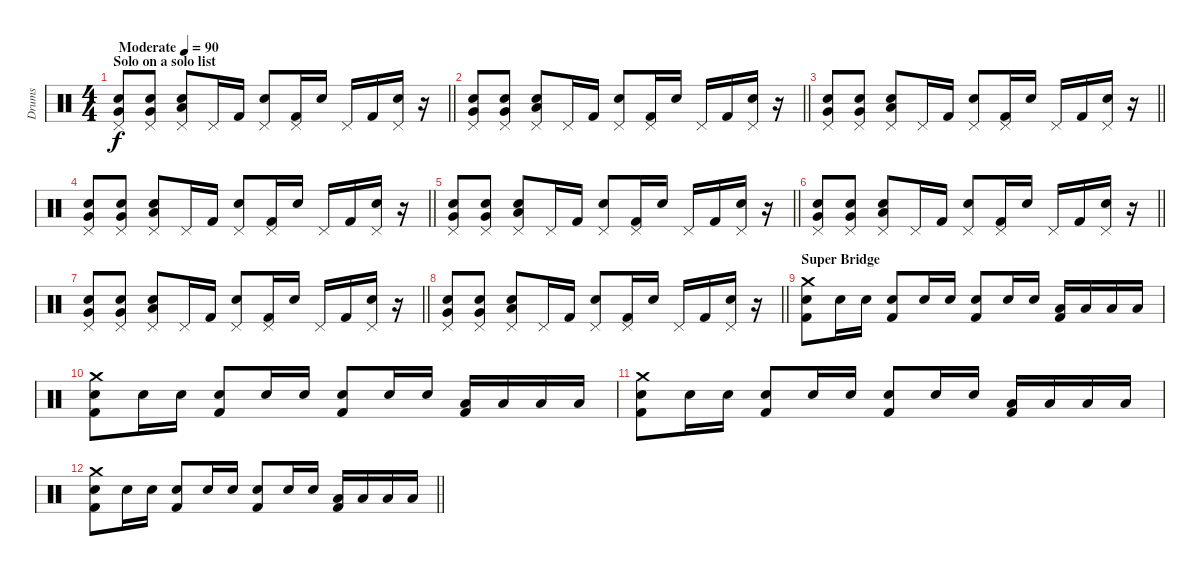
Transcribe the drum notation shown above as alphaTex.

\track ("Drums" "Drums") {instrument percussion}
\staff {score}
\articulation defaults
\ts (4 4)
\section ("" "Solo on a solo list")
\tempo (90 "Moderate")
\clef neutral
\barLineRight lightlight
\ks c
("Very Low Tom (hit)" "Snare (hit) 2" "Pedal Hi-Hat (hit)").8{dy f} ("Very Low Tom (hit)" "Snare (hit) 2" "Pedal Hi-Hat (hit)").8 ("Low Floor Tom (hit)" "Snare (hit) 2" "Pedal Hi-Hat (hit)").8 "Pedal Hi-Hat (hit)".16 "Kick (hit) 2".16 ("Snare (hit) 2" "Pedal Hi-Hat (hit)").8 ("Kick (hit) 2" "Pedal Hi-Hat (hit)").16 "Snare (hit) 2".16 "Pedal Hi-Hat (hit)".16 "Kick (hit) 2".16 ("Snare (hit) 2" "Pedal Hi-Hat (hit)").16 r.16 |
\barLineRight lightlight
("Very Low Tom (hit)" "Snare (hit) 2" "Pedal Hi-Hat (hit)").8 ("Very Low Tom (hit)" "Snare (hit) 2" "Pedal Hi-Hat (hit)").8 ("Low Floor Tom (hit)" "Snare (hit) 2" "Pedal Hi-Hat (hit)").8 "Pedal Hi-Hat (hit)".16 "Kick (hit) 2".16 ("Snare (hit) 2" "Pedal Hi-Hat (hit)").8 ("Kick (hit) 2" "Pedal Hi-Hat (hit)").16 "Snare (hit) 2".16 "Pedal Hi-Hat (hit)".16 "Kick (hit) 2".16 ("Snare (hit) 2" "Pedal Hi-Hat (hit)").16 r.16 |
\barLineRight lightlight
("Very Low Tom (hit)" "Snare (hit) 2" "Pedal Hi-Hat (hit)").8 ("Very Low Tom (hit)" "Snare (hit) 2" "Pedal Hi-Hat (hit)").8 ("Low Floor Tom (hit)" "Snare (hit) 2" "Pedal Hi-Hat (hit)").8 "Pedal Hi-Hat (hit)".16 "Kick (hit) 2".16 ("Snare (hit) 2" "Pedal Hi-Hat (hit)").8 ("Kick (hit) 2" "Pedal Hi-Hat (hit)").16 "Snare (hit) 2".16 "Pedal Hi-Hat (hit)".16 "Kick (hit) 2".16 ("Snare (hit) 2" "Pedal Hi-Hat (hit)").16 r.16 |
\barLineRight lightlight
("Very Low Tom (hit)" "Snare (hit) 2" "Pedal Hi-Hat (hit)").8 ("Very Low Tom (hit)" "Snare (hit) 2" "Pedal Hi-Hat (hit)").8 ("Low Floor Tom (hit)" "Snare (hit) 2" "Pedal Hi-Hat (hit)").8 "Pedal Hi-Hat (hit)".16 "Kick (hit) 2".16 ("Snare (hit) 2" "Pedal Hi-Hat (hit)").8 ("Kick (hit) 2" "Pedal Hi-Hat (hit)").16 "Snare (hit) 2".16 "Pedal Hi-Hat (hit)".16 "Kick (hit) 2".16 ("Snare (hit) 2" "Pedal Hi-Hat (hit)").16 r.16 |
\barLineRight lightlight
("Very Low Tom (hit)" "Snare (hit) 2" "Pedal Hi-Hat (hit)").8 ("Very Low Tom (hit)" "Snare (hit) 2" "Pedal Hi-Hat (hit)").8 ("Low Floor Tom (hit)" "Snare (hit) 2" "Pedal Hi-Hat (hit)").8 "Pedal Hi-Hat (hit)".16 "Kick (hit) 2".16 ("Snare (hit) 2" "Pedal Hi-Hat (hit)").8 ("Kick (hit) 2" "Pedal Hi-Hat (hit)").16 "Snare (hit) 2".16 "Pedal Hi-Hat (hit)".16 "Kick (hit) 2".16 ("Snare (hit) 2" "Pedal Hi-Hat (hit)").16 r.16 |
\barLineRight lightlight
("Very Low Tom (hit)" "Snare (hit) 2" "Pedal Hi-Hat (hit)").8 ("Very Low Tom (hit)" "Snare (hit) 2" "Pedal Hi-Hat (hit)").8 ("Low Floor Tom (hit)" "Snare (hit) 2" "Pedal Hi-Hat (hit)").8 "Pedal Hi-Hat (hit)".16 "Kick (hit) 2".16 ("Snare (hit) 2" "Pedal Hi-Hat (hit)").8 ("Kick (hit) 2" "Pedal Hi-Hat (hit)").16 "Snare (hit) 2".16 "Pedal Hi-Hat (hit)".16 "Kick (hit) 2".16 ("Snare (hit) 2" "Pedal Hi-Hat (hit)").16 r.16 |
\barLineRight lightlight
("Very Low Tom (hit)" "Snare (hit) 2" "Pedal Hi-Hat (hit)").8 ("Very Low Tom (hit)" "Snare (hit) 2" "Pedal Hi-Hat (hit)").8 ("Low Floor Tom (hit)" "Snare (hit) 2" "Pedal Hi-Hat (hit)").8 "Pedal Hi-Hat (hit)".16 "Kick (hit) 2".16 ("Snare (hit) 2" "Pedal Hi-Hat (hit)").8 ("Kick (hit) 2" "Pedal Hi-Hat (hit)").16 "Snare (hit) 2".16 "Pedal Hi-Hat (hit)".16 "Kick (hit) 2".16 ("Snare (hit) 2" "Pedal Hi-Hat (hit)").16 r.16 |
\barLineRight lightlight
("Very Low Tom (hit)" "Snare (hit) 2" "Pedal Hi-Hat (hit)").8 ("Very Low Tom (hit)" "Snare (hit) 2" "Pedal Hi-Hat (hit)").8 ("Low Floor Tom (hit)" "Snare (hit) 2" "Pedal Hi-Hat (hit)").8 "Pedal Hi-Hat (hit)".16 "Kick (hit) 2".16 ("Snare (hit) 2" "Pedal Hi-Hat (hit)").8 ("Kick (hit) 2" "Pedal Hi-Hat (hit)").16 "Snare (hit) 2".16 "Pedal Hi-Hat (hit)".16 "Kick (hit) 2".16 ("Snare (hit) 2" "Pedal Hi-Hat (hit)").16 r.16 |
\section ("" "Super Bridge")
("Kick (hit) 2" "Snare (hit) 2" "Crash medium (hit)").8 "Snare (hit) 2".16 "Snare (hit) 2".16 ("Kick (hit) 2" "Snare (hit) 2").8 "Snare (hit) 2".16 "Snare (hit) 2".16 ("Kick (hit) 2" "Snare (hit) 2").8 "Snare (hit) 2".16 "Snare (hit) 2".16 ("Kick (hit) 2" "Low Floor Tom (hit)").16 "Low Floor Tom (hit)".16 "Low Floor Tom (hit)".16 "Low Floor Tom (hit)".16 |
("Kick (hit) 2" "Snare (hit) 2" "Crash medium (hit)").8 "Snare (hit) 2".16 "Snare (hit) 2".16 ("Kick (hit) 2" "Snare (hit) 2").8 "Snare (hit) 2".16 "Snare (hit) 2".16 ("Kick (hit) 2" "Snare (hit) 2").8 "Snare (hit) 2".16 "Snare (hit) 2".16 ("Kick (hit) 2" "Low Floor Tom (hit)").16 "Low Floor Tom (hit)".16 "Low Floor Tom (hit)".16 "Low Floor Tom (hit)".16 |
("Kick (hit) 2" "Snare (hit) 2" "Crash medium (hit)").8 "Snare (hit) 2".16 "Snare (hit) 2".16 ("Kick (hit) 2" "Snare (hit) 2").8 "Snare (hit) 2".16 "Snare (hit) 2".16 ("Kick (hit) 2" "Snare (hit) 2").8 "Snare (hit) 2".16 "Snare (hit) 2".16 ("Kick (hit) 2" "Low Floor Tom (hit)").16 "Low Floor Tom (hit)".16 "Low Floor Tom (hit)".16 "Low Floor Tom (hit)".16 |
\barLineRight lightlight
("Kick (hit) 2" "Snare (hit) 2" "Crash medium (hit)").8 "Snare (hit) 2".16 "Snare (hit) 2".16 ("Kick (hit) 2" "Snare (hit) 2").8 "Snare (hit) 2".16 "Snare (hit) 2".16 ("Kick (hit) 2" "Snare (hit) 2").8 "Snare (hit) 2".16 "Snare (hit) 2".16 ("Kick (hit) 2" "Low Floor Tom (hit)").16 "Low Floor Tom (hit)".16 "Low Floor Tom (hit)".16 "Low Floor Tom (hit)".16
